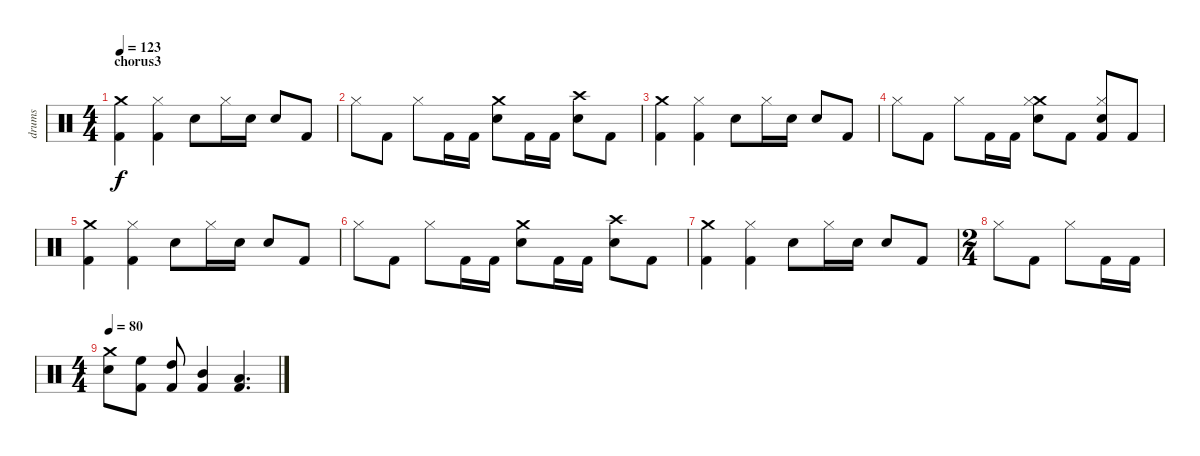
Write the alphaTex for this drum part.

\track ("drums" "drums") {instrument percussion}
\staff {score}
\articulation defaults
\ts (4 4)
\section ("" "chorus3")
\tempo 123
\clef neutral
\ks c
("Crash medium (hit)" "Kick (hit) 2").4{dy f} ("Hi-Hat (closed)" "Kick (hit) 2").4 "Snare (hit) 2".8 "Hi-Hat (closed)".16 "Snare (hit) 2".16 "Snare (hit) 2".8 "Kick (hit) 2".8 |
"Hi-Hat (closed)".8 "Kick (hit) 2".8 "Hi-Hat (closed)".8 "Kick (hit) 2".16 "Kick (hit) 2".16 ("Crash medium (hit)" "Snare (hit) 2").8 "Kick (hit) 2".16 "Kick (hit) 2".16 ("Crash high (hit)" "Snare (hit) 2").8 "Kick (hit) 2".8 |
("Crash medium (hit)" "Kick (hit) 2").4 ("Hi-Hat (closed)" "Kick (hit) 2").4 "Snare (hit) 2".8 "Hi-Hat (closed)".16 "Snare (hit) 2".16 "Snare (hit) 2".8 "Kick (hit) 2".8 |
"Hi-Hat (closed)".8 "Kick (hit) 2".8 "Hi-Hat (closed)".8 "Kick (hit) 2".16 "Kick (hit) 2".16 ("Crash medium (hit)" "Hi-Hat (closed)" "Snare (hit) 2").8 "Kick (hit) 2".8 ("Hi-Hat (closed)" "Snare (hit) 2" "Kick (hit) 2").8 "Kick (hit) 2".8 |
("Crash medium (hit)" "Kick (hit) 2").4 ("Hi-Hat (closed)" "Kick (hit) 2").4 "Snare (hit) 2".8 "Hi-Hat (closed)".16 "Snare (hit) 2".16 "Snare (hit) 2".8 "Kick (hit) 2".8 |
"Hi-Hat (closed)".8 "Kick (hit) 2".8 "Hi-Hat (closed)".8 "Kick (hit) 2".16 "Kick (hit) 2".16 ("Crash medium (hit)" "Snare (hit) 2").8 "Kick (hit) 2".16 "Kick (hit) 2".16 ("Crash high (hit)" "Snare (hit) 2").8 "Kick (hit) 2".8 |
("Crash medium (hit)" "Kick (hit) 2").4 ("Hi-Hat (closed)" "Kick (hit) 2").4 "Snare (hit) 2".8 "Hi-Hat (closed)".16 "Snare (hit) 2".16 "Snare (hit) 2".8 "Kick (hit) 2".8 |
\ts (2 4)
"Hi-Hat (closed)".8 "Kick (hit) 2".8 "Hi-Hat (closed)".8 "Kick (hit) 2".16 "Kick (hit) 2".16 |
\ts (4 4)
\tempo 80
("Crash medium (hit)" "Snare (hit) 2").8 ("High Floor Tom (hit)" "Kick (hit) 2").8 ("High Tom (hit)" "Kick (hit) 2").8 ("Mid Tom (hit)" "Kick (hit) 2").4 ("Low Tom (hit)" "Kick (hit) 2").4{d}
